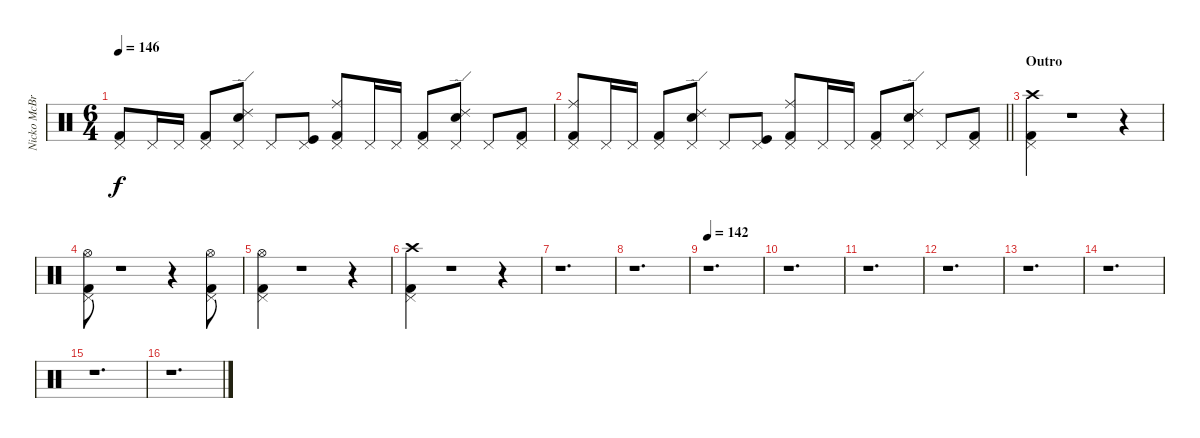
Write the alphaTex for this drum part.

\track ("Nicko McBrain" "Nicko McBr") {instrument percussion}
\staff {score}
\articulation defaults
\ts (6 4)
\tempo 146
\clef neutral
\ks c
("Kick (hit) 2" "Pedal Hi-Hat (hit)").8{dy f} "Pedal Hi-Hat (hit)".16 "Pedal Hi-Hat (hit)".16 ("Kick (hit) 2" "Pedal Hi-Hat (hit)").8 ("Snare (hit) 2" "Pedal Hi-Hat (hit)" "Ride (edge) 2").8 "Pedal Hi-Hat (hit)".8 ("Kick (hit)" "Pedal Hi-Hat (hit)").8 ("Kick (hit) 2" "Pedal Hi-Hat (hit)" "Ride (middle)").8 "Pedal Hi-Hat (hit)".16 "Pedal Hi-Hat (hit)".16 ("Kick (hit) 2" "Pedal Hi-Hat (hit)").8 ("Snare (hit) 2" "Pedal Hi-Hat (hit)" "Ride (edge) 2").8 "Pedal Hi-Hat (hit)".8 ("Kick (hit) 2" "Pedal Hi-Hat (hit)").8 |
\barLineRight lightlight
("Kick (hit) 2" "Pedal Hi-Hat (hit)" "Ride (middle)").8 "Pedal Hi-Hat (hit)".16 "Pedal Hi-Hat (hit)".16 ("Kick (hit) 2" "Pedal Hi-Hat (hit)").8 ("Snare (hit) 2" "Pedal Hi-Hat (hit)" "Ride (edge) 2").8 "Pedal Hi-Hat (hit)".8 ("Kick (hit)" "Pedal Hi-Hat (hit)").8 ("Kick (hit) 2" "Pedal Hi-Hat (hit)" "Ride (middle)").8 "Pedal Hi-Hat (hit)".16 "Pedal Hi-Hat (hit)".16 ("Kick (hit) 2" "Pedal Hi-Hat (hit)").8 ("Snare (hit) 2" "Pedal Hi-Hat (hit)" "Ride (edge) 2").8 "Pedal Hi-Hat (hit)".8 ("Kick (hit) 2" "Pedal Hi-Hat (hit)").8 |
\section ("" "Outro")
("Kick (hit) 2" "Pedal Hi-Hat (hit)" "Crash high (hit)").4 r.1 r.4 |
("Kick (hit) 2" "Pedal Hi-Hat (hit)" "Hi-Hat (open)").8 r.1 r.4 ("Kick (hit) 2" "Pedal Hi-Hat (hit)" "Hi-Hat (open)").8 |
("Kick (hit) 2" "Pedal Hi-Hat (hit)" "Hi-Hat (open)").4 r.1 r.4 |
("Kick (hit) 2" "Pedal Hi-Hat (hit)" "Crash high (hit)").4 r.1 r.4 |
r.1{d} |
r.1{d} |
\tempo 142
r.1{d} |
r.1{d} |
r.1{d} |
r.1{d} |
r.1{d} |
r.1{d} |
r.1{d} |
r.1{d}
